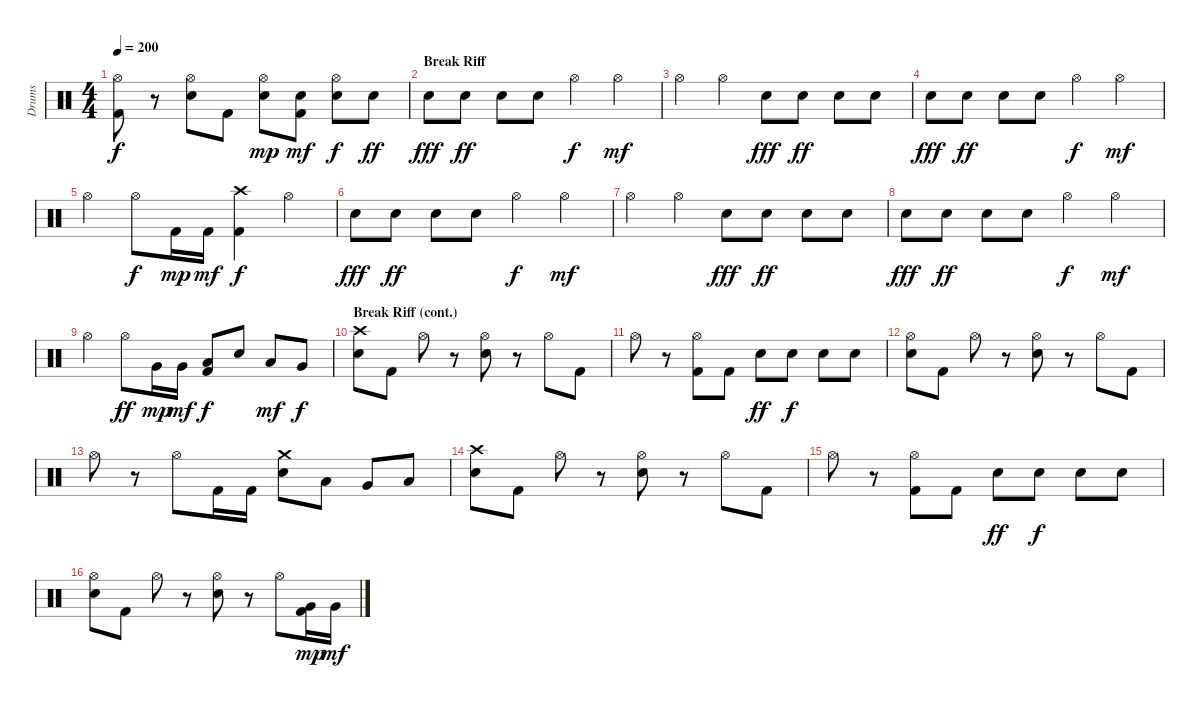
\track ("Drums" "Drums") {instrument percussion}
\staff {score}
\articulation defaults
\ts (4 4)
\tempo 200
\clef neutral
\ks c
("Kick (hit) 2" "Hi-Hat (open)").8{dy f} r.8 ("Electric Snare (hit)" "Hi-Hat (open)").8 "Kick (hit) 2".8 ("Electric Snare (hit)" "Hi-Hat (open)").8{dy mp} ("Kick (hit) 2" "Electric Snare (hit)").8{dy mf} ("Electric Snare (hit)" "Hi-Hat (open)").8{dy f} "Electric Snare (hit)".8{dy ff} |
\section ("" "Break Riff")
"Electric Snare (hit)".8{dy fff} "Electric Snare (hit)".8{dy ff} "Electric Snare (hit)".8 "Electric Snare (hit)".8 "Hi-Hat (open)".4{dy f} "Hi-Hat (open)".4{dy mf} |
"Hi-Hat (open)".4 "Hi-Hat (open)".4 "Electric Snare (hit)".8{dy fff} "Electric Snare (hit)".8{dy ff} "Electric Snare (hit)".8 "Electric Snare (hit)".8 |
"Electric Snare (hit)".8{dy fff} "Electric Snare (hit)".8{dy ff} "Electric Snare (hit)".8 "Electric Snare (hit)".8 "Hi-Hat (open)".4{dy f} "Hi-Hat (open)".4{dy mf} |
"Hi-Hat (open)".4 "Hi-Hat (open)".8{dy f} "Kick (hit) 2".16{dy mp} "Kick (hit) 2".16{dy mf} ("Kick (hit) 2" "Crash high (hit)").4{dy f} "Hi-Hat (open)".4 |
"Electric Snare (hit)".8{dy fff} "Electric Snare (hit)".8{dy ff} "Electric Snare (hit)".8 "Electric Snare (hit)".8 "Hi-Hat (open)".4{dy f} "Hi-Hat (open)".4{dy mf} |
"Hi-Hat (open)".4 "Hi-Hat (open)".4 "Electric Snare (hit)".8{dy fff} "Electric Snare (hit)".8{dy ff} "Electric Snare (hit)".8 "Electric Snare (hit)".8 |
"Electric Snare (hit)".8{dy fff} "Electric Snare (hit)".8{dy ff} "Electric Snare (hit)".8 "Electric Snare (hit)".8 "Hi-Hat (open)".4{dy f} "Hi-Hat (open)".4{dy mf} |
"Hi-Hat (open)".4 "Hi-Hat (open)".8{dy ff} "Very Low Tom (hit)".16{dy mp} "Very Low Tom (hit)".16{dy mf} ("Kick (hit) 2" "Low Tom (hit)").8{dy f} "Electric Snare (hit)".8 "Low Floor Tom (hit)".8{dy mf} "Very Low Tom (hit)".8{dy f} |
\section ("" "Break Riff (cont.)")
("Electric Snare (hit)" "Crash high (hit)").8 "Kick (hit) 2".8 "Hi-Hat (open)".8 r.8 ("Electric Snare (hit)" "Hi-Hat (open)").8 r.8 "Hi-Hat (open)".8 "Kick (hit) 2".8 |
"Hi-Hat (open)".8 r.8 ("Kick (hit) 2" "Hi-Hat (open)").8 "Kick (hit) 2".8 "Electric Snare (hit)".8{dy ff} "Electric Snare (hit)".8{dy f} "Electric Snare (hit)".8 "Electric Snare (hit)".8 |
("Electric Snare (hit)" "Hi-Hat (open)").8 "Kick (hit) 2".8 "Hi-Hat (open)".8 r.8 ("Electric Snare (hit)" "Hi-Hat (open)").8 r.8 "Hi-Hat (open)".8 "Kick (hit) 2".8 |
"Hi-Hat (open)".8 r.8 "Hi-Hat (open)".8 "Kick (hit) 2".16 "Kick (hit) 2".16 ("Electric Snare (hit)" "Crash medium (hit)").8 "Low Tom (hit)".8 "Very Low Tom (hit)".8 "Low Floor Tom (hit)".8 |
("Electric Snare (hit)" "Crash high (hit)").8 "Kick (hit) 2".8 "Hi-Hat (open)".8 r.8 ("Electric Snare (hit)" "Hi-Hat (open)").8 r.8 "Hi-Hat (open)".8 "Kick (hit) 2".8 |
"Hi-Hat (open)".8 r.8 ("Kick (hit) 2" "Hi-Hat (open)").8 "Kick (hit) 2".8 "Electric Snare (hit)".8{dy ff} "Electric Snare (hit)".8{dy f} "Electric Snare (hit)".8 "Electric Snare (hit)".8 |
("Electric Snare (hit)" "Hi-Hat (open)").8 "Kick (hit) 2".8 "Hi-Hat (open)".8 r.8 ("Electric Snare (hit)" "Hi-Hat (open)").8 r.8 "Hi-Hat (open)".8 ("Kick (hit) 2" "Very Low Tom (hit)").16{dy mp} "Very Low Tom (hit)".16{dy mf}
